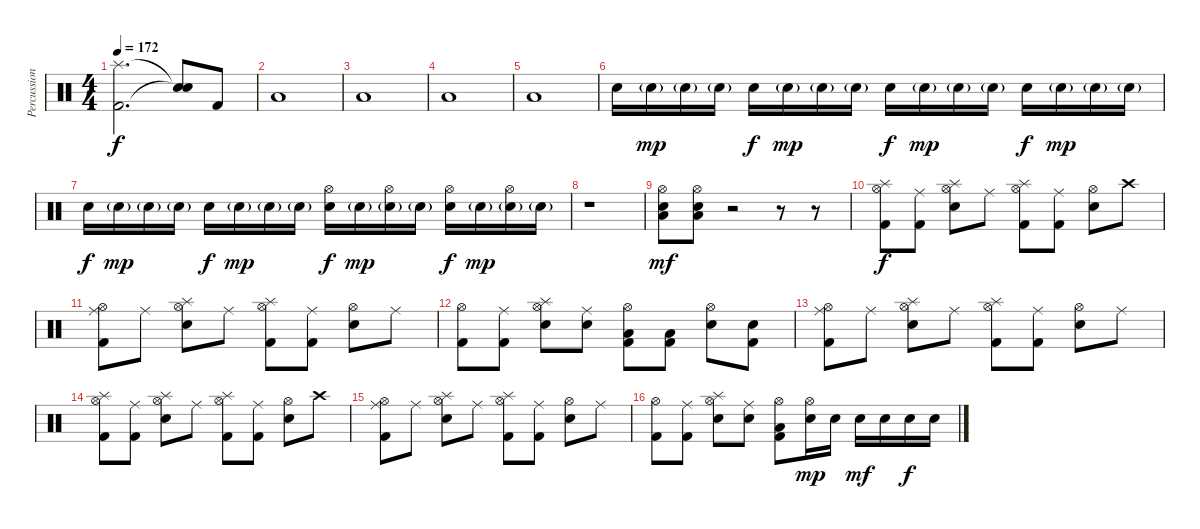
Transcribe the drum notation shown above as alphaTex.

\track ("Percussion" "Percussion") {instrument percussion}
\staff {score}
\articulation defaults
\ts (4 4)
\tempo 172
\clef neutral
\ks c
("Splash (hit)" "Kick (hit) 2").2{d dy f} ("Snare (hit)"{t} "Snare (hit)"{t}).8 "Kick (hit) 2".8 |
"Low Floor Tom (hit)".1 |
"Low Floor Tom (hit)".1 |
"Low Floor Tom (hit)".1 |
"Low Floor Tom (hit)".1 |
"Electric Snare (hit)".16 "Electric Snare (hit)"{g}.16{dy mp} "Electric Snare (hit)"{g}.16 "Electric Snare (hit)"{g}.16 "Electric Snare (hit)".16{dy f} "Electric Snare (hit)"{g}.16{dy mp} "Electric Snare (hit)"{g}.16 "Electric Snare (hit)"{g}.16 "Electric Snare (hit)".16{dy f} "Electric Snare (hit)"{g}.16{dy mp} "Electric Snare (hit)"{g}.16 "Electric Snare (hit)"{g}.16 "Electric Snare (hit)".16{dy f} "Electric Snare (hit)"{g}.16{dy mp} "Electric Snare (hit)"{g}.16 "Electric Snare (hit)"{g}.16 |
"Electric Snare (hit)".16{dy f} "Electric Snare (hit)"{g}.16{dy mp} "Electric Snare (hit)"{g}.16 "Electric Snare (hit)"{g}.16 "Electric Snare (hit)".16{dy f} "Electric Snare (hit)"{g}.16{dy mp} "Electric Snare (hit)"{g}.16 "Electric Snare (hit)"{g}.16 ("Hi-Hat (open)" "Electric Snare (hit)").16{dy f} "Electric Snare (hit)"{g}.16{dy mp} ("Hi-Hat (open)" "Electric Snare (hit)"{g}).16 "Electric Snare (hit)"{g}.16 ("Hi-Hat (open)" "Electric Snare (hit)").16{dy f} "Electric Snare (hit)"{g}.16{dy mp} ("Hi-Hat (open)" "Electric Snare (hit)"{g}).16 "Electric Snare (hit)"{g}.16 |
r.1 |
("Snare (hit) 2" "Hi-Hat (open)" "Low Floor Tom (hit)").8{dy mf} ("Snare (hit) 2" "Hi-Hat (open)" "Low Floor Tom (hit)").8 r.2 r.8 r.8 |
("Hi-Hat (open)" "Splash (hit)" "Kick (hit) 2").8{dy f} ("Ride (middle)" "Kick (hit) 2").8 ("Hi-Hat (open)" "Splash (hit)" "Electric Snare (hit)").8 "Ride (middle)".8 ("Hi-Hat (open)" "Splash (hit)" "Kick (hit) 2").8 ("Ride (middle)" "Kick (hit) 2").8 ("Hi-Hat (open)" "Electric Snare (hit)").8 "Crash high (hit)".8 |
("Hi-Hat (open)" "Ride (middle)" "Kick (hit) 2").8 "Ride (middle)".8 ("Hi-Hat (open)" "Splash (hit)" "Electric Snare (hit)").8 "Ride (middle)".8 ("Hi-Hat (open)" "Splash (hit)" "Kick (hit) 2").8 ("Ride (middle)" "Kick (hit) 2").8 ("Hi-Hat (open)" "Electric Snare (hit)").8 "Ride (middle)".8 |
("Hi-Hat (open)" "Kick (hit) 2").8 ("Ride (middle)" "Kick (hit) 2").8 ("Hi-Hat (open)" "Splash (hit)" "Electric Snare (hit)").8 ("Ride (middle)" "Electric Snare (hit)").8 ("Hi-Hat (open)" "Kick (hit) 2" "Low Floor Tom (hit)").8 ("Kick (hit) 2" "Low Floor Tom (hit)").8 ("Hi-Hat (open)" "Snare (hit) 2").8 ("Electric Snare (hit)" "Kick (hit) 2").8 |
("Hi-Hat (open)" "Ride (middle)" "Kick (hit) 2").8 "Ride (middle)".8 ("Hi-Hat (open)" "Splash (hit)" "Electric Snare (hit)").8 "Ride (middle)".8 ("Hi-Hat (open)" "Splash (hit)" "Kick (hit) 2").8 ("Ride (middle)" "Kick (hit) 2").8 ("Hi-Hat (open)" "Electric Snare (hit)").8 "Ride (middle)".8 |
("Hi-Hat (open)" "Splash (hit)" "Kick (hit) 2").8 ("Ride (middle)" "Kick (hit) 2").8 ("Hi-Hat (open)" "Splash (hit)" "Electric Snare (hit)").8 "Ride (middle)".8 ("Hi-Hat (open)" "Splash (hit)" "Kick (hit) 2").8 ("Ride (middle)" "Kick (hit) 2").8 ("Hi-Hat (open)" "Electric Snare (hit)").8 "Crash high (hit)".8 |
("Hi-Hat (open)" "Ride (middle)" "Kick (hit) 2").8 "Ride (middle)".8 ("Hi-Hat (open)" "Splash (hit)" "Electric Snare (hit)").8 "Ride (middle)".8 ("Hi-Hat (open)" "Splash (hit)" "Kick (hit) 2").8 ("Ride (middle)" "Kick (hit) 2").8 ("Hi-Hat (open)" "Electric Snare (hit)").8 "Ride (middle)".8 |
("Hi-Hat (open)" "Kick (hit) 2").8 ("Ride (middle)" "Kick (hit) 2").8 ("Hi-Hat (open)" "Splash (hit)" "Electric Snare (hit)").8 ("Ride (middle)" "Electric Snare (hit)").8 ("Hi-Hat (open)" "Kick (hit) 2" "Low Floor Tom (hit)").8 ("Hi-Hat (open)" "Electric Snare (hit)").16{dy mp} "Electric Snare (hit)".16 "Electric Snare (hit)".16{dy mf} "Electric Snare (hit)".16 "Electric Snare (hit)".16{dy f} "Electric Snare (hit)".16
